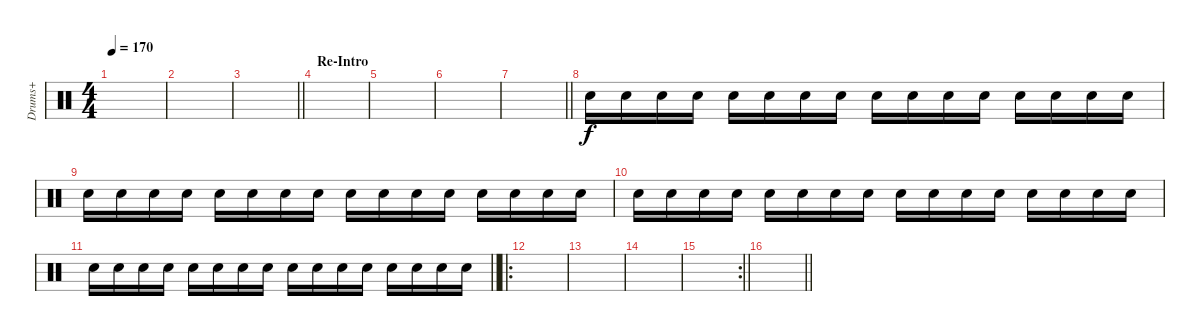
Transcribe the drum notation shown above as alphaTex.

\track ("Drums+" "Drums+") {instrument percussion}
\staff {score}
\articulation defaults
\ts (4 4)
\tempo 170
\clef neutral
\ks c
|
|
\barLineRight lightlight
|
\section ("" "Re-Intro")
|
|
|
\barLineRight lightlight
|
"Snare (hit) 2".16{volume 4} "Snare (hit) 2".16 "Snare (hit) 2".16 "Snare (hit) 2".16 "Snare (hit) 2".16 "Snare (hit) 2".16 "Snare (hit) 2".16 "Snare (hit) 2".16 "Snare (hit) 2".16 "Snare (hit) 2".16 "Snare (hit) 2".16 "Snare (hit) 2".16 "Snare (hit) 2".16 "Snare (hit) 2".16 "Snare (hit) 2".16 "Snare (hit) 2".16 |
"Snare (hit) 2".16{volume 8} "Snare (hit) 2".16 "Snare (hit) 2".16 "Snare (hit) 2".16 "Snare (hit) 2".16 "Snare (hit) 2".16 "Snare (hit) 2".16 "Snare (hit) 2".16 "Snare (hit) 2".16 "Snare (hit) 2".16 "Snare (hit) 2".16 "Snare (hit) 2".16 "Snare (hit) 2".16 "Snare (hit) 2".16 "Snare (hit) 2".16 "Snare (hit) 2".16 |
"Snare (hit) 2".16{volume 12} "Snare (hit) 2".16 "Snare (hit) 2".16 "Snare (hit) 2".16 "Snare (hit) 2".16 "Snare (hit) 2".16 "Snare (hit) 2".16 "Snare (hit) 2".16 "Snare (hit) 2".16 "Snare (hit) 2".16 "Snare (hit) 2".16 "Snare (hit) 2".16 "Snare (hit) 2".16 "Snare (hit) 2".16 "Snare (hit) 2".16 "Snare (hit) 2".16 |
\barLineRight lightlight "Snare (hit) 2".16{volume 16} "Snare (hit) 2".16 "Snare (hit) 2".16 "Snare (hit) 2".16 "Snare (hit) 2".16 "Snare (hit) 2".16 "Snare (hit) 2".16 "Snare (hit) 2".16 "Snare (hit) 2".16 "Snare (hit) 2".16 "Snare (hit) 2".16 "Snare (hit) 2".16 "Snare (hit) 2".16 "Snare (hit) 2".16 "Snare (hit) 2".16 "Snare (hit) 2".16
|
\ro
|
|
|
\rc 2
\barLineRight lightlight
|
\barLineRight lightlight
